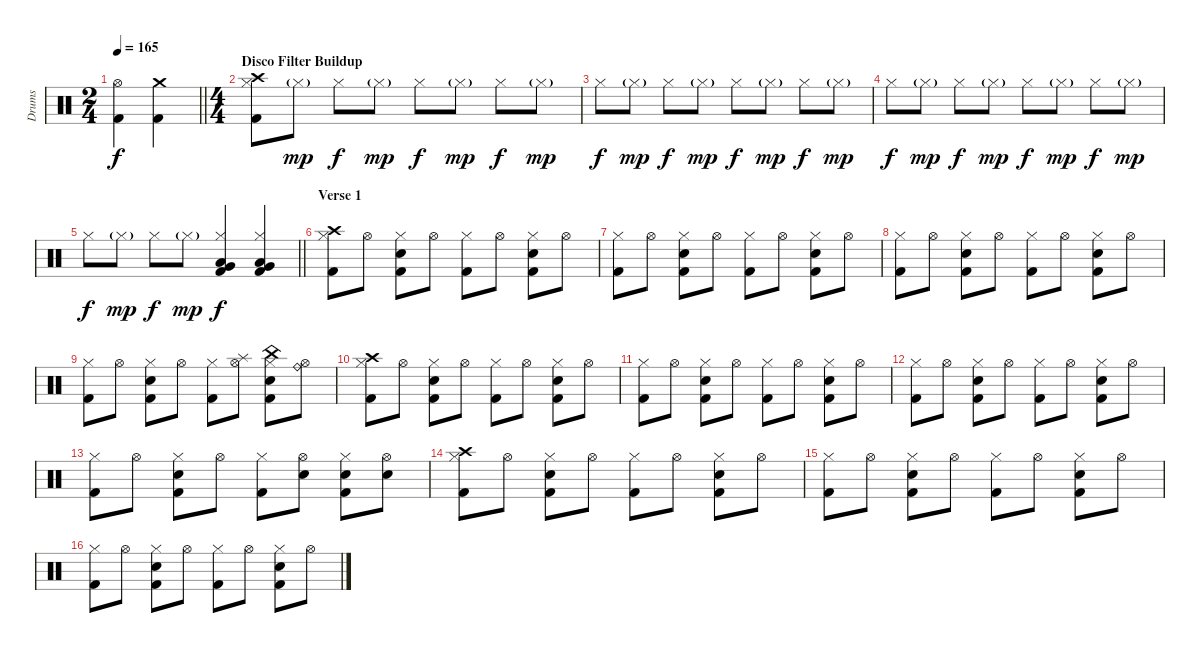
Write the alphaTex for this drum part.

\track ("Drums" "Drums") {instrument percussion}
\staff {score}
\articulation defaults
\ts (2 4)
\tempo 165
\clef neutral
\barLineRight lightlight
\ks c
("Hi-Hat (open)" "Kick (hit) 2").4{dy f} ("Crash medium (hit)" "Kick (hit) 2").4 |
\ts (4 4)
\section ("" "Disco Filter Buildup")
("Crash high (hit)" "Hi-Hat (closed)" "Kick (hit) 2").8 "Hi-Hat (closed)"{g}.8{dy mp} "Hi-Hat (closed)".8{dy f} "Hi-Hat (closed)"{g}.8{dy mp} "Hi-Hat (closed)".8{dy f} "Hi-Hat (closed)"{g}.8{dy mp} "Hi-Hat (closed)".8{dy f} "Hi-Hat (closed)"{g}.8{dy mp} |
"Hi-Hat (closed)".8{dy f} "Hi-Hat (closed)"{g}.8{dy mp} "Hi-Hat (closed)".8{dy f} "Hi-Hat (closed)"{g}.8{dy mp} "Hi-Hat (closed)".8{dy f} "Hi-Hat (closed)"{g}.8{dy mp} "Hi-Hat (closed)".8{dy f} "Hi-Hat (closed)"{g}.8{dy mp} |
"Hi-Hat (closed)".8{dy f} "Hi-Hat (closed)"{g}.8{dy mp} "Hi-Hat (closed)".8{dy f} "Hi-Hat (closed)"{g}.8{dy mp} "Hi-Hat (closed)".8{dy f} "Hi-Hat (closed)"{g}.8{dy mp} "Hi-Hat (closed)".8{dy f} "Hi-Hat (closed)"{g}.8{dy mp} |
\barLineRight lightlight "Hi-Hat (closed)".8{dy f} "Hi-Hat (closed)"{g}.8{dy mp} "Hi-Hat (closed)".8{dy f} "Hi-Hat (closed)"{g}.8{dy mp}
("Hi-Hat (closed)" "Very Low Tom (hit)" "Low Floor Tom (hit)" "Kick (hit) 2").4{dy f} ("Hi-Hat (closed)" "Very Low Tom (hit)" "Low Floor Tom (hit)" "Kick (hit) 2").4 |
\section ("" "Verse 1")
("Crash high (hit)" "Hi-Hat (closed)" "Kick (hit) 2").8 "Hi-Hat (open)".8 ("Hi-Hat (closed)" "Snare (hit) 2" "Kick (hit) 2").8 "Hi-Hat (open)".8 ("Hi-Hat (closed)" "Kick (hit) 2").8 "Hi-Hat (open)".8 ("Hi-Hat (closed)" "Snare (hit) 2" "Kick (hit) 2").8 "Hi-Hat (open)".8 |
("Hi-Hat (closed)" "Kick (hit) 2").8 "Hi-Hat (open)".8 ("Hi-Hat (closed)" "Snare (hit) 2" "Kick (hit) 2").8 "Hi-Hat (open)".8 ("Hi-Hat (closed)" "Kick (hit) 2").8 "Hi-Hat (open)".8 ("Hi-Hat (closed)" "Snare (hit) 2" "Kick (hit) 2").8 "Hi-Hat (open)".8 |
("Hi-Hat (closed)" "Kick (hit) 2").8 "Hi-Hat (open)".8 ("Hi-Hat (closed)" "Snare (hit) 2" "Kick (hit) 2").8 "Hi-Hat (open)".8 ("Hi-Hat (closed)" "Kick (hit) 2").8 "Hi-Hat (open)".8 ("Hi-Hat (closed)" "Snare (hit) 2" "Kick (hit) 2").8 "Hi-Hat (open)".8 |
("Hi-Hat (closed)" "Kick (hit) 2").8 "Hi-Hat (open)".8 ("Hi-Hat (closed)" "Snare (hit) 2" "Kick (hit) 2").8 "Hi-Hat (open)".8 ("Hi-Hat (closed)" "Kick (hit) 2").8 ("Splash (hit)" "Hi-Hat (open)").8 ("China (hit)" "Hi-Hat (closed)" "Snare (hit) 2" "Kick (hit) 2").8 ("Ride (bell)" "Hi-Hat (open)").8 |
("Crash high (hit)" "Hi-Hat (closed)" "Kick (hit) 2").8 "Hi-Hat (open)".8 ("Hi-Hat (closed)" "Snare (hit) 2" "Kick (hit) 2").8 "Hi-Hat (open)".8 ("Hi-Hat (closed)" "Kick (hit) 2").8 "Hi-Hat (open)".8 ("Hi-Hat (closed)" "Snare (hit) 2" "Kick (hit) 2").8 "Hi-Hat (open)".8 |
("Hi-Hat (closed)" "Kick (hit) 2").8 "Hi-Hat (open)".8 ("Hi-Hat (closed)" "Snare (hit) 2" "Kick (hit) 2").8 "Hi-Hat (open)".8 ("Hi-Hat (closed)" "Kick (hit) 2").8 "Hi-Hat (open)".8 ("Hi-Hat (closed)" "Snare (hit) 2" "Kick (hit) 2").8 "Hi-Hat (open)".8 |
("Hi-Hat (closed)" "Kick (hit) 2").8 "Hi-Hat (open)".8 ("Hi-Hat (closed)" "Snare (hit) 2" "Kick (hit) 2").8 "Hi-Hat (open)".8 ("Hi-Hat (closed)" "Kick (hit) 2").8 "Hi-Hat (open)".8 ("Hi-Hat (closed)" "Snare (hit) 2" "Kick (hit) 2").8 "Hi-Hat (open)".8 |
("Hi-Hat (closed)" "Kick (hit) 2").8 "Hi-Hat (open)".8 ("Hi-Hat (closed)" "Snare (hit) 2" "Kick (hit) 2").8 "Hi-Hat (open)".8 ("Hi-Hat (closed)" "Kick (hit) 2").8 ("Hi-Hat (open)" "Snare (hit) 2").8 ("Hi-Hat (closed)" "Snare (hit) 2" "Kick (hit) 2").8 ("Hi-Hat (open)" "Snare (hit) 2").8 |
("Crash high (hit)" "Hi-Hat (closed)" "Kick (hit) 2").8 "Hi-Hat (open)".8 ("Hi-Hat (closed)" "Snare (hit) 2" "Kick (hit) 2").8 "Hi-Hat (open)".8 ("Hi-Hat (closed)" "Kick (hit) 2").8 "Hi-Hat (open)".8 ("Hi-Hat (closed)" "Snare (hit) 2" "Kick (hit) 2").8 "Hi-Hat (open)".8 |
("Hi-Hat (closed)" "Kick (hit) 2").8 "Hi-Hat (open)".8 ("Hi-Hat (closed)" "Snare (hit) 2" "Kick (hit) 2").8 "Hi-Hat (open)".8 ("Hi-Hat (closed)" "Kick (hit) 2").8 "Hi-Hat (open)".8 ("Hi-Hat (closed)" "Snare (hit) 2" "Kick (hit) 2").8 "Hi-Hat (open)".8 |
("Hi-Hat (closed)" "Kick (hit) 2").8 "Hi-Hat (open)".8 ("Hi-Hat (closed)" "Snare (hit) 2" "Kick (hit) 2").8 "Hi-Hat (open)".8 ("Hi-Hat (closed)" "Kick (hit) 2").8 "Hi-Hat (open)".8 ("Hi-Hat (closed)" "Snare (hit) 2" "Kick (hit) 2").8 "Hi-Hat (open)".8
